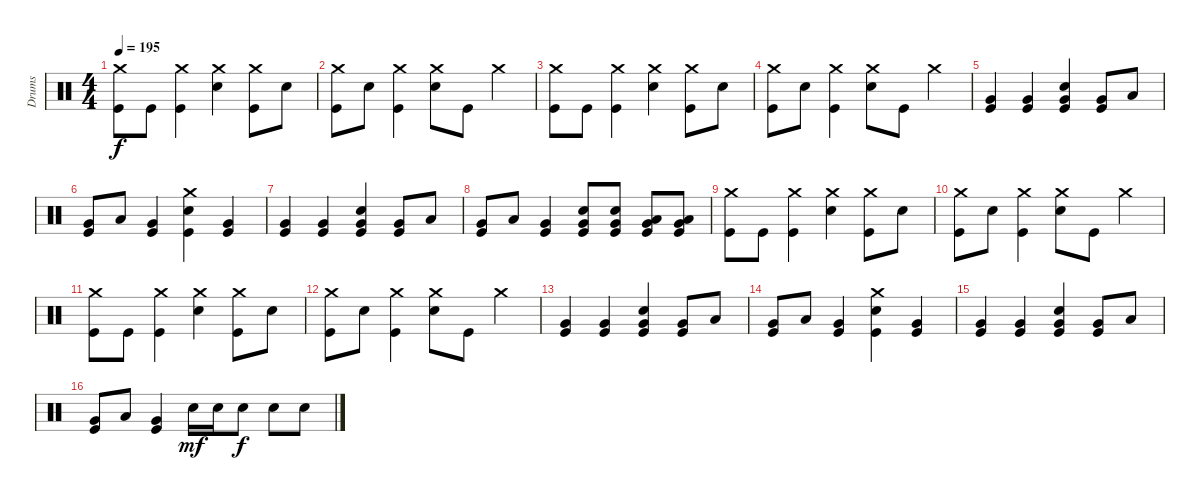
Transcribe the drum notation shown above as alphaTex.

\track ("Drums" "Drums") {instrument percussion}
\staff {score}
\articulation defaults
\ts (4 4)
\tempo 195
\clef neutral
\ks c
("Crash medium (hit)" "Kick (hit)").8{dy f} "Kick (hit)".8 ("Crash medium (hit)" "Kick (hit)").4 ("Crash medium (hit)" "Electric Snare (hit)").4 ("Crash medium (hit)" "Kick (hit)").8 "Electric Snare (hit)".8 |
("Crash medium (hit)" "Kick (hit)").8 "Electric Snare (hit)".8 ("Crash medium (hit)" "Kick (hit)").4 ("Crash medium (hit)" "Electric Snare (hit)").8 "Kick (hit)".8 "Crash medium (hit)".4 |
("Crash medium (hit)" "Kick (hit)").8 "Kick (hit)".8 ("Crash medium (hit)" "Kick (hit)").4 ("Crash medium (hit)" "Electric Snare (hit)").4 ("Crash medium (hit)" "Kick (hit)").8 "Electric Snare (hit)".8 |
("Crash medium (hit)" "Kick (hit)").8 "Electric Snare (hit)".8 ("Crash medium (hit)" "Kick (hit)").4 ("Crash medium (hit)" "Electric Snare (hit)").8 "Kick (hit)".8 "Crash medium (hit)".4 |
("Very Low Tom (hit)" "Kick (hit)").4 ("Very Low Tom (hit)" "Kick (hit)").4 ("Very Low Tom (hit)" "Electric Snare (hit)" "Kick (hit)").4 ("Very Low Tom (hit)" "Kick (hit)").8 "Low Tom (hit)".8 |
("Very Low Tom (hit)" "Kick (hit)").8 "Low Tom (hit)".8 ("Very Low Tom (hit)" "Kick (hit)").4 ("Crash medium (hit)" "Electric Snare (hit)" "Kick (hit)").4 ("Very Low Tom (hit)" "Kick (hit)").4 |
("Very Low Tom (hit)" "Kick (hit)").4 ("Very Low Tom (hit)" "Kick (hit)").4 ("Very Low Tom (hit)" "Electric Snare (hit)" "Kick (hit)").4 ("Very Low Tom (hit)" "Kick (hit)").8 "Low Tom (hit)".8 |
("Very Low Tom (hit)" "Kick (hit)").8 "Low Tom (hit)".8 ("Very Low Tom (hit)" "Kick (hit)").4 ("Very Low Tom (hit)" "Electric Snare (hit)" "Kick (hit)").8 ("Very Low Tom (hit)" "Electric Snare (hit)" "Kick (hit)").8 ("Very Low Tom (hit)" "Low Floor Tom (hit)" "Kick (hit)").8 ("Very Low Tom (hit)" "Low Floor Tom (hit)" "Kick (hit)").8 |
("Crash medium (hit)" "Kick (hit)").8 "Kick (hit)".8 ("Crash medium (hit)" "Kick (hit)").4 ("Crash medium (hit)" "Electric Snare (hit)").4 ("Crash medium (hit)" "Kick (hit)").8 "Electric Snare (hit)".8 |
("Crash medium (hit)" "Kick (hit)").8 "Electric Snare (hit)".8 ("Crash medium (hit)" "Kick (hit)").4 ("Crash medium (hit)" "Electric Snare (hit)").8 "Kick (hit)".8 "Crash medium (hit)".4 |
("Crash medium (hit)" "Kick (hit)").8 "Kick (hit)".8 ("Crash medium (hit)" "Kick (hit)").4 ("Crash medium (hit)" "Electric Snare (hit)").4 ("Crash medium (hit)" "Kick (hit)").8 "Electric Snare (hit)".8 |
("Crash medium (hit)" "Kick (hit)").8 "Electric Snare (hit)".8 ("Crash medium (hit)" "Kick (hit)").4 ("Crash medium (hit)" "Electric Snare (hit)").8 "Kick (hit)".8 "Crash medium (hit)".4 |
("Very Low Tom (hit)" "Kick (hit)").4 ("Very Low Tom (hit)" "Kick (hit)").4 ("Very Low Tom (hit)" "Electric Snare (hit)" "Kick (hit)").4 ("Very Low Tom (hit)" "Kick (hit)").8 "Low Tom (hit)".8 |
("Very Low Tom (hit)" "Kick (hit)").8 "Low Tom (hit)".8 ("Very Low Tom (hit)" "Kick (hit)").4 ("Crash medium (hit)" "Electric Snare (hit)" "Kick (hit)").4 ("Very Low Tom (hit)" "Kick (hit)").4 |
("Very Low Tom (hit)" "Kick (hit)").4 ("Very Low Tom (hit)" "Kick (hit)").4 ("Very Low Tom (hit)" "Electric Snare (hit)" "Kick (hit)").4 ("Very Low Tom (hit)" "Kick (hit)").8 "Low Tom (hit)".8 |
("Very Low Tom (hit)" "Kick (hit)").8 "Low Tom (hit)".8 ("Very Low Tom (hit)" "Kick (hit)").4 "Electric Snare (hit)".16{dy mf} "Electric Snare (hit)".16 "Electric Snare (hit)".8{dy f} "Electric Snare (hit)".8 "Electric Snare (hit)".8
